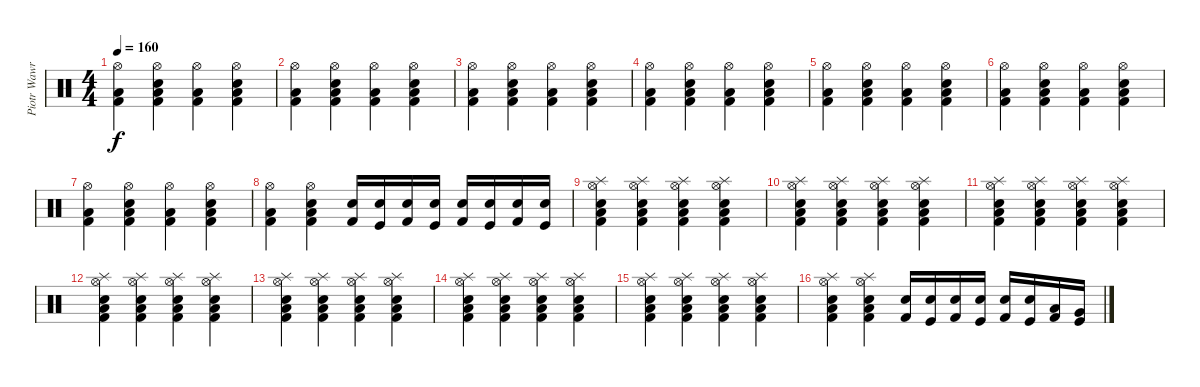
\track ("Piotr Wawrzeniuk" "Piotr Wawr") {instrument percussion}
\staff {score}
\articulation defaults
\ts (4 4)
\tempo 160
\clef neutral
\ks c
("Hi-Hat (open)" "Low Floor Tom (hit)" "Kick (hit) 2").4{dy f} ("Snare (hit) 2" "Hi-Hat (open)" "Low Floor Tom (hit)" "Kick (hit) 2").4 ("Hi-Hat (open)" "Low Floor Tom (hit)" "Kick (hit) 2").4 ("Snare (hit) 2" "Hi-Hat (open)" "Low Floor Tom (hit)" "Kick (hit) 2").4 |
("Hi-Hat (open)" "Low Floor Tom (hit)" "Kick (hit) 2").4 ("Snare (hit) 2" "Hi-Hat (open)" "Low Floor Tom (hit)" "Kick (hit) 2").4 ("Hi-Hat (open)" "Low Floor Tom (hit)" "Kick (hit) 2").4 ("Snare (hit) 2" "Hi-Hat (open)" "Low Floor Tom (hit)" "Kick (hit) 2").4 |
("Hi-Hat (open)" "Low Floor Tom (hit)" "Kick (hit) 2").4 ("Snare (hit) 2" "Hi-Hat (open)" "Low Floor Tom (hit)" "Kick (hit) 2").4 ("Hi-Hat (open)" "Low Floor Tom (hit)" "Kick (hit) 2").4 ("Snare (hit) 2" "Hi-Hat (open)" "Low Floor Tom (hit)" "Kick (hit) 2").4 |
("Hi-Hat (open)" "Low Floor Tom (hit)" "Kick (hit) 2").4 ("Snare (hit) 2" "Hi-Hat (open)" "Low Floor Tom (hit)" "Kick (hit) 2").4 ("Hi-Hat (open)" "Low Floor Tom (hit)" "Kick (hit) 2").4 ("Snare (hit) 2" "Hi-Hat (open)" "Low Floor Tom (hit)" "Kick (hit) 2").4 |
("Hi-Hat (open)" "Low Floor Tom (hit)" "Kick (hit) 2").4 ("Snare (hit) 2" "Hi-Hat (open)" "Low Floor Tom (hit)" "Kick (hit) 2").4 ("Hi-Hat (open)" "Low Floor Tom (hit)" "Kick (hit) 2").4 ("Snare (hit) 2" "Hi-Hat (open)" "Low Floor Tom (hit)" "Kick (hit) 2").4 |
("Hi-Hat (open)" "Low Floor Tom (hit)" "Kick (hit) 2").4 ("Snare (hit) 2" "Hi-Hat (open)" "Low Floor Tom (hit)" "Kick (hit) 2").4 ("Hi-Hat (open)" "Low Floor Tom (hit)" "Kick (hit) 2").4 ("Snare (hit) 2" "Hi-Hat (open)" "Low Floor Tom (hit)" "Kick (hit) 2").4 |
("Hi-Hat (open)" "Low Floor Tom (hit)" "Kick (hit) 2").4 ("Snare (hit) 2" "Hi-Hat (open)" "Low Floor Tom (hit)" "Kick (hit) 2").4 ("Hi-Hat (open)" "Low Floor Tom (hit)" "Kick (hit) 2").4 ("Snare (hit) 2" "Hi-Hat (open)" "Low Floor Tom (hit)" "Kick (hit) 2").4 |
("Hi-Hat (open)" "Low Floor Tom (hit)" "Kick (hit) 2").4 ("Snare (hit) 2" "Hi-Hat (open)" "Low Floor Tom (hit)" "Kick (hit) 2").4 ("Snare (hit) 2" "Kick (hit) 2").16 ("Snare (hit) 2" "Kick (hit)").16 ("Snare (hit) 2" "Kick (hit) 2").16 ("Snare (hit) 2" "Kick (hit)").16 ("Snare (hit) 2" "Kick (hit) 2").16 ("Snare (hit) 2" "Kick (hit)").16 ("Snare (hit) 2" "Kick (hit) 2").16 ("Snare (hit) 2" "Kick (hit)").16 |
("Snare (hit) 2" "Splash (hit)" "Hi-Hat (open)" "Low Floor Tom (hit)" "Kick (hit) 2").4 ("Snare (hit) 2" "Splash (hit)" "Hi-Hat (open)" "Low Floor Tom (hit)" "Kick (hit) 2").4 ("Snare (hit) 2" "Splash (hit)" "Hi-Hat (open)" "Low Floor Tom (hit)" "Kick (hit) 2").4 ("Snare (hit) 2" "Splash (hit)" "Hi-Hat (open)" "Low Floor Tom (hit)" "Kick (hit) 2").4 |
("Snare (hit) 2" "Splash (hit)" "Hi-Hat (open)" "Low Floor Tom (hit)" "Kick (hit) 2").4 ("Snare (hit) 2" "Splash (hit)" "Hi-Hat (open)" "Low Floor Tom (hit)" "Kick (hit) 2").4 ("Snare (hit) 2" "Splash (hit)" "Hi-Hat (open)" "Low Floor Tom (hit)" "Kick (hit) 2").4 ("Snare (hit) 2" "Splash (hit)" "Hi-Hat (open)" "Low Floor Tom (hit)" "Kick (hit) 2").4 |
("Snare (hit) 2" "Splash (hit)" "Hi-Hat (open)" "Low Floor Tom (hit)" "Kick (hit) 2").4 ("Snare (hit) 2" "Splash (hit)" "Hi-Hat (open)" "Low Floor Tom (hit)" "Kick (hit) 2").4 ("Snare (hit) 2" "Splash (hit)" "Hi-Hat (open)" "Low Floor Tom (hit)" "Kick (hit) 2").4 ("Snare (hit) 2" "Splash (hit)" "Hi-Hat (open)" "Low Floor Tom (hit)" "Kick (hit) 2").4 |
("Snare (hit) 2" "Splash (hit)" "Hi-Hat (open)" "Low Floor Tom (hit)" "Kick (hit) 2").4 ("Snare (hit) 2" "Splash (hit)" "Hi-Hat (open)" "Low Floor Tom (hit)" "Kick (hit) 2").4 ("Snare (hit) 2" "Splash (hit)" "Hi-Hat (open)" "Low Floor Tom (hit)" "Kick (hit) 2").4 ("Snare (hit) 2" "Splash (hit)" "Hi-Hat (open)" "Low Floor Tom (hit)" "Kick (hit) 2").4 |
("Snare (hit) 2" "Splash (hit)" "Hi-Hat (open)" "Low Floor Tom (hit)" "Kick (hit) 2").4 ("Snare (hit) 2" "Splash (hit)" "Hi-Hat (open)" "Low Floor Tom (hit)" "Kick (hit) 2").4 ("Snare (hit) 2" "Splash (hit)" "Hi-Hat (open)" "Low Floor Tom (hit)" "Kick (hit) 2").4 ("Snare (hit) 2" "Splash (hit)" "Hi-Hat (open)" "Low Floor Tom (hit)" "Kick (hit) 2").4 |
("Snare (hit) 2" "Splash (hit)" "Hi-Hat (open)" "Low Floor Tom (hit)" "Kick (hit) 2").4 ("Snare (hit) 2" "Splash (hit)" "Hi-Hat (open)" "Low Floor Tom (hit)" "Kick (hit) 2").4 ("Snare (hit) 2" "Splash (hit)" "Hi-Hat (open)" "Low Floor Tom (hit)" "Kick (hit) 2").4 ("Snare (hit) 2" "Splash (hit)" "Hi-Hat (open)" "Low Floor Tom (hit)" "Kick (hit) 2").4 |
("Snare (hit) 2" "Splash (hit)" "Hi-Hat (open)" "Low Floor Tom (hit)" "Kick (hit) 2").4 ("Snare (hit) 2" "Splash (hit)" "Hi-Hat (open)" "Low Floor Tom (hit)" "Kick (hit) 2").4 ("Snare (hit) 2" "Splash (hit)" "Hi-Hat (open)" "Low Floor Tom (hit)" "Kick (hit) 2").4 ("Snare (hit) 2" "Splash (hit)" "Hi-Hat (open)" "Low Floor Tom (hit)" "Kick (hit) 2").4 |
("Splash (hit)" "Snare (hit) 2" "Hi-Hat (open)" "Low Floor Tom (hit)" "Kick (hit) 2").4 ("Splash (hit)" "Snare (hit) 2" "Hi-Hat (open)" "Low Floor Tom (hit)" "Kick (hit) 2").4 ("Snare (hit) 2" "Kick (hit) 2").16 ("Snare (hit) 2" "Kick (hit)").16 ("Snare (hit) 2" "Kick (hit) 2").16 ("Snare (hit) 2" "Kick (hit)").16 ("Snare (hit) 2" "Kick (hit) 2").16 ("Snare (hit) 2" "Kick (hit)").16 ("Low Tom (hit)" "Kick (hit) 2").16 ("Very Low Tom (hit)" "Kick (hit)").16
